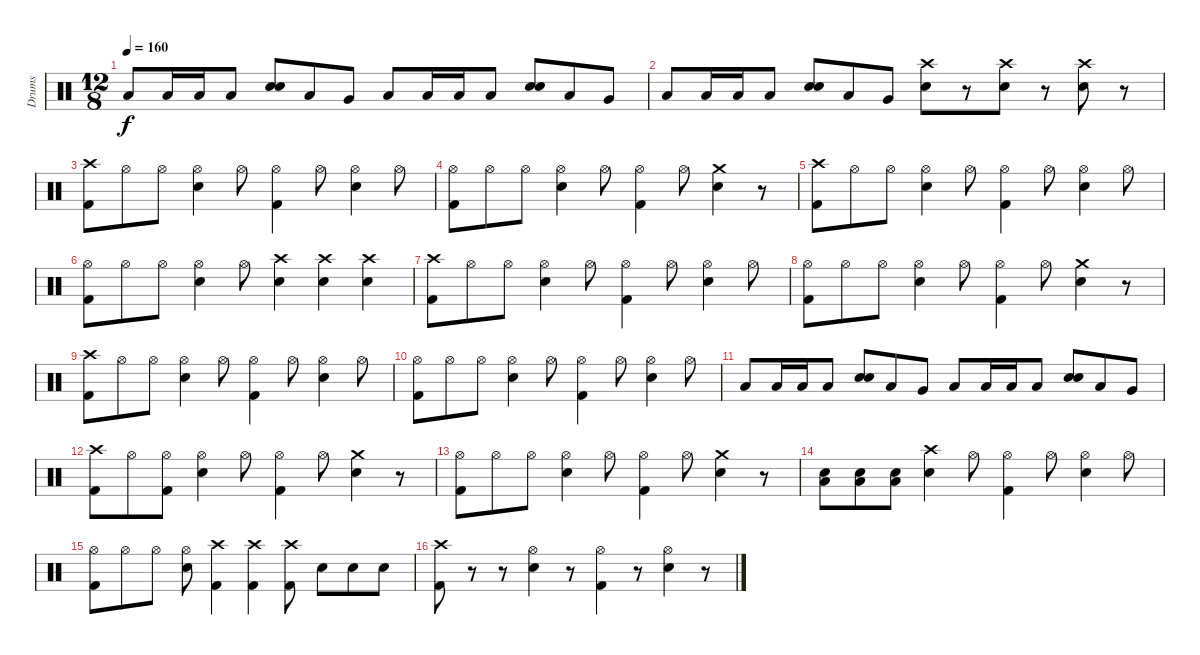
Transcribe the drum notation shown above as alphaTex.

\track ("Drums" "Drums") {instrument percussion}
\staff {score}
\articulation defaults
\ts (12 8)
\tempo 160
\clef neutral
\ks c "Low Tom (hit)".8{dy f} "Low Tom (hit)".16 "Low Tom (hit)".16 "Low Tom (hit)".8
("Snare (hit) 2" "Snare (hit) 2").8 "Low Tom (hit)".8 "Very Low Tom (hit)".8 "Low Tom (hit)".8 "Low Tom (hit)".16 "Low Tom (hit)".16 "Low Tom (hit)".8 ("Snare (hit) 2" "Snare (hit) 2").8 "Low Tom (hit)".8 "Very Low Tom (hit)".8 |
"Low Tom (hit)".8 "Low Tom (hit)".16 "Low Tom (hit)".16 "Low Tom (hit)".8 ("Snare (hit) 2" "Snare (hit) 2").8 "Low Tom (hit)".8 "Very Low Tom (hit)".8 ("Crash high (hit)" "Snare (hit) 2").8 r.8 ("Crash high (hit)" "Snare (hit) 2").8 r.8 ("Crash high (hit)" "Snare (hit) 2").8 r.8 |
("Kick (hit) 2" "Crash high (hit)").8 "Hi-Hat (open)".8 "Hi-Hat (open)".8 ("Snare (hit) 2" "Hi-Hat (open)").4 "Hi-Hat (open)".8 ("Kick (hit) 2" "Hi-Hat (open)").4 "Hi-Hat (open)".8 ("Snare (hit) 2" "Hi-Hat (open)").4 "Hi-Hat (open)".8 |
("Kick (hit) 2" "Hi-Hat (open)").8 "Hi-Hat (open)".8 "Hi-Hat (open)".8 ("Snare (hit) 2" "Hi-Hat (open)").4 "Hi-Hat (open)".8 ("Kick (hit) 2" "Hi-Hat (open)").4 "Hi-Hat (open)".8 ("Snare (hit) 2" "Crash medium (hit)").4 r.8 |
("Kick (hit) 2" "Crash high (hit)").8 "Hi-Hat (open)".8 "Hi-Hat (open)".8 ("Snare (hit) 2" "Hi-Hat (open)").4 "Hi-Hat (open)".8 ("Kick (hit) 2" "Hi-Hat (open)").4 "Hi-Hat (open)".8 ("Snare (hit) 2" "Hi-Hat (open)").4 "Hi-Hat (open)".8 |
("Kick (hit) 2" "Hi-Hat (open)").8 "Hi-Hat (open)".8 "Hi-Hat (open)".8 ("Snare (hit) 2" "Hi-Hat (open)").4 "Hi-Hat (open)".8 ("Snare (hit) 2" "Crash high (hit)").4 ("Snare (hit) 2" "Crash high (hit)").4 ("Snare (hit) 2" "Crash high (hit)").4 |
("Kick (hit) 2" "Crash high (hit)").8 "Hi-Hat (open)".8 "Hi-Hat (open)".8 ("Snare (hit) 2" "Hi-Hat (open)").4 "Hi-Hat (open)".8 ("Kick (hit) 2" "Hi-Hat (open)").4 "Hi-Hat (open)".8 ("Snare (hit) 2" "Hi-Hat (open)").4 "Hi-Hat (open)".8 |
("Kick (hit) 2" "Hi-Hat (open)").8 "Hi-Hat (open)".8 "Hi-Hat (open)".8 ("Snare (hit) 2" "Hi-Hat (open)").4 "Hi-Hat (open)".8 ("Kick (hit) 2" "Hi-Hat (open)").4 "Hi-Hat (open)".8 ("Snare (hit) 2" "Crash medium (hit)").4 r.8 |
("Kick (hit) 2" "Crash high (hit)").8 "Hi-Hat (open)".8 "Hi-Hat (open)".8 ("Snare (hit) 2" "Hi-Hat (open)").4 "Hi-Hat (open)".8 ("Kick (hit) 2" "Hi-Hat (open)").4 "Hi-Hat (open)".8 ("Snare (hit) 2" "Hi-Hat (open)").4 "Hi-Hat (open)".8 |
("Kick (hit) 2" "Hi-Hat (open)").8 "Hi-Hat (open)".8 "Hi-Hat (open)".8 ("Snare (hit) 2" "Hi-Hat (open)").4 "Hi-Hat (open)".8 ("Kick (hit) 2" "Hi-Hat (open)").4 "Hi-Hat (open)".8 ("Snare (hit) 2" "Hi-Hat (open)").4 "Hi-Hat (open)".8 |
"Low Tom (hit)".8 "Low Tom (hit)".16 "Low Tom (hit)".16 "Low Tom (hit)".8 ("Snare (hit) 2" "Snare (hit) 2").8 "Low Tom (hit)".8 "Very Low Tom (hit)".8 "Low Tom (hit)".8 "Low Tom (hit)".16 "Low Tom (hit)".16 "Low Tom (hit)".8 ("Snare (hit) 2" "Snare (hit) 2").8 "Low Tom (hit)".8 "Very Low Tom (hit)".8 |
("Kick (hit) 2" "Crash high (hit)").8 "Hi-Hat (open)".8 ("Kick (hit) 2" "Hi-Hat (open)").8 ("Snare (hit) 2" "Hi-Hat (open)").4 "Hi-Hat (open)".8 ("Kick (hit) 2" "Hi-Hat (open)").4 "Hi-Hat (open)".8 ("Snare (hit) 2" "Crash medium (hit)").4 r.8 |
("Kick (hit) 2" "Hi-Hat (open)").8 "Hi-Hat (open)".8 "Hi-Hat (open)".8 ("Snare (hit) 2" "Hi-Hat (open)").4 "Hi-Hat (open)".8 ("Kick (hit) 2" "Hi-Hat (open)").4 "Hi-Hat (open)".8 ("Snare (hit) 2" "Crash medium (hit)").4 r.8 |
("Snare (hit) 2" "Low Tom (hit)").8 ("Snare (hit) 2" "Low Tom (hit)").8 ("Snare (hit) 2" "Low Tom (hit)").8 ("Snare (hit) 2" "Crash high (hit)").4 "Hi-Hat (open)".8 ("Kick (hit) 2" "Hi-Hat (open)").4 "Hi-Hat (open)".8 ("Snare (hit) 2" "Hi-Hat (open)").4 "Hi-Hat (open)".8 |
("Kick (hit) 2" "Hi-Hat (open)").8 "Hi-Hat (open)".8 "Hi-Hat (open)".8 ("Snare (hit) 2" "Hi-Hat (open)").8 ("Kick (hit) 2" "Crash high (hit)").4 ("Kick (hit) 2" "Crash high (hit)").4 ("Kick (hit) 2" "Crash high (hit)").8 "Snare (hit) 2".8 "Snare (hit) 2".8 "Snare (hit) 2".8 |
("Kick (hit) 2" "Crash high (hit)").8 r.8 r.8 ("Snare (hit) 2" "Hi-Hat (open)").4 r.8 ("Kick (hit) 2" "Hi-Hat (open)").4 r.8 ("Snare (hit) 2" "Hi-Hat (open)").4 r.8
